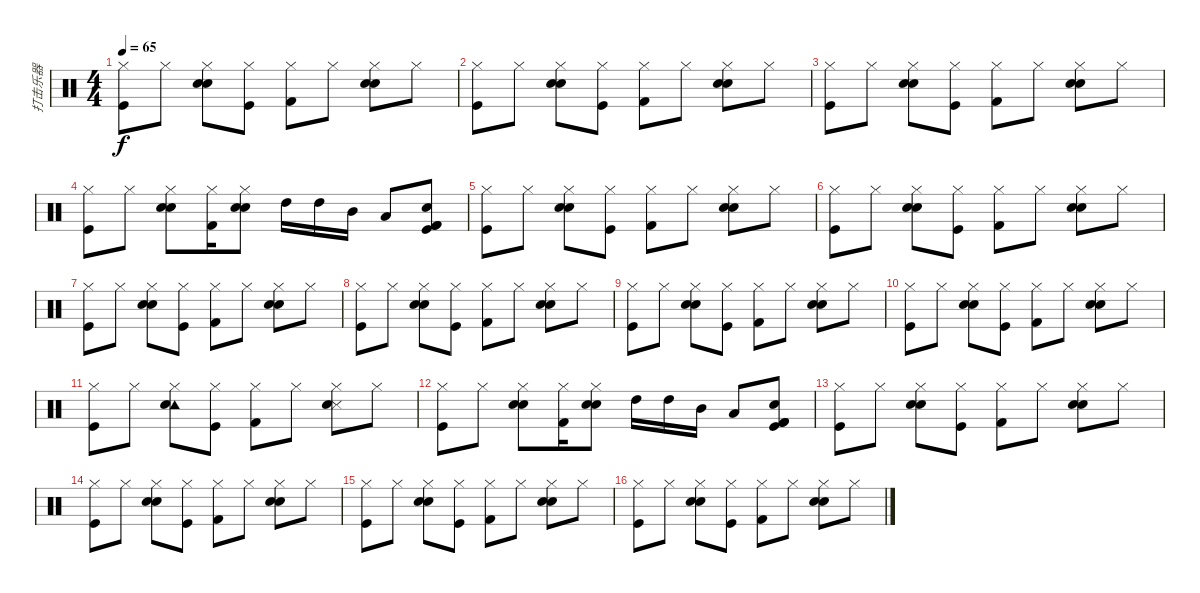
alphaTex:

\track ("打击乐器" "打击乐器") {instrument percussion}
\staff {score}
\articulation defaults
\ts (4 4)
\tempo 65
\clef neutral
\ks c
("Hi-Hat (closed)" "Kick (hit)").8{dy f} "Hi-Hat (closed)".8 ("Hi-Hat (closed)" "Electric Snare (hit)" "Hand Clap (hit)").8 ("Hi-Hat (closed)" "Kick (hit)").8 ("Hi-Hat (closed)" "Kick (hit) 2").8 "Hi-Hat (closed)".8 ("Hi-Hat (closed)" "Electric Snare (hit)" "Hand Clap (hit)").8 "Hi-Hat (closed)".8 |
("Hi-Hat (closed)" "Kick (hit)").8 "Hi-Hat (closed)".8 ("Hi-Hat (closed)" "Electric Snare (hit)" "Hand Clap (hit)").8 ("Hi-Hat (closed)" "Kick (hit)").8 ("Hi-Hat (closed)" "Kick (hit) 2").8 "Hi-Hat (closed)".8 ("Hi-Hat (closed)" "Electric Snare (hit)" "Hand Clap (hit)").8 "Hi-Hat (closed)".8 |
("Hi-Hat (closed)" "Kick (hit)").8 "Hi-Hat (closed)".8 ("Hi-Hat (closed)" "Electric Snare (hit)" "Hand Clap (hit)").8 ("Hi-Hat (closed)" "Kick (hit)").8 ("Hi-Hat (closed)" "Kick (hit) 2").8 "Hi-Hat (closed)".8 ("Hi-Hat (closed)" "Electric Snare (hit)" "Hand Clap (hit)").8 "Hi-Hat (closed)".8 |
("Hi-Hat (closed)" "Kick (hit)").8 "Hi-Hat (closed)".8 ("Hi-Hat (closed)" "Electric Snare (hit)" "Hand Clap (hit)").8 ("Hi-Hat (closed)" "Kick (hit) 2").16 ("Hi-Hat (closed)" "Electric Snare (hit)" "Hand Clap (hit)").8 "High Tom (hit)".16 "High Tom (hit)".16 "Mid Tom (hit)".16 "Low Tom (hit)".8 ("Electric Snare (hit)" "Kick (hit) 2" "Kick (hit) 2" "Kick (hit)").8 |
("Hi-Hat (closed)" "Kick (hit)").8 "Hi-Hat (closed)".8 ("Hi-Hat (closed)" "Electric Snare (hit)" "Hand Clap (hit)").8 ("Hi-Hat (closed)" "Kick (hit)").8 ("Hi-Hat (closed)" "Kick (hit) 2").8 "Hi-Hat (closed)".8 ("Hi-Hat (closed)" "Electric Snare (hit)" "Hand Clap (hit)").8 "Hi-Hat (closed)".8 |
("Hi-Hat (closed)" "Kick (hit)").8 "Hi-Hat (closed)".8 ("Hi-Hat (closed)" "Electric Snare (hit)" "Hand Clap (hit)").8 ("Hi-Hat (closed)" "Kick (hit)").8 ("Hi-Hat (closed)" "Kick (hit) 2").8 "Hi-Hat (closed)".8 ("Hi-Hat (closed)" "Electric Snare (hit)" "Hand Clap (hit)").8 "Hi-Hat (closed)".8 |
("Hi-Hat (closed)" "Kick (hit)").8 "Hi-Hat (closed)".8 ("Hi-Hat (closed)" "Electric Snare (hit)" "Hand Clap (hit)").8 ("Hi-Hat (closed)" "Kick (hit)").8 ("Hi-Hat (closed)" "Kick (hit) 2").8 "Hi-Hat (closed)".8 ("Hi-Hat (closed)" "Electric Snare (hit)" "Hand Clap (hit)").8 "Hi-Hat (closed)".8 |
("Hi-Hat (closed)" "Kick (hit)").8 "Hi-Hat (closed)".8 ("Hi-Hat (closed)" "Electric Snare (hit)" "Hand Clap (hit)").8 ("Hi-Hat (closed)" "Kick (hit)").8 ("Hi-Hat (closed)" "Kick (hit) 2").8 "Hi-Hat (closed)".8 ("Hi-Hat (closed)" "Electric Snare (hit)" "Hand Clap (hit)").8 "Hi-Hat (closed)".8 |
("Hi-Hat (closed)" "Kick (hit)").8 "Hi-Hat (closed)".8 ("Hi-Hat (closed)" "Electric Snare (hit)" "Hand Clap (hit)").8 ("Hi-Hat (closed)" "Kick (hit)").8 ("Hi-Hat (closed)" "Kick (hit) 2").8 "Hi-Hat (closed)".8 ("Hi-Hat (closed)" "Electric Snare (hit)" "Hand Clap (hit)").8 "Hi-Hat (closed)".8 |
("Hi-Hat (closed)" "Kick (hit)").8 "Hi-Hat (closed)".8 ("Hi-Hat (closed)" "Electric Snare (hit)" "Hand Clap (hit)").8 ("Hi-Hat (closed)" "Kick (hit)").8 ("Hi-Hat (closed)" "Kick (hit) 2").8 "Hi-Hat (closed)".8 ("Hi-Hat (closed)" "Electric Snare (hit)" "Hand Clap (hit)").8 "Hi-Hat (closed)".8 |
("Hi-Hat (closed)" "Kick (hit)").8 "Hi-Hat (closed)".8 ("Hi-Hat (closed)" "Tambourine (hit)" "Electric Snare (hit)").8 ("Hi-Hat (closed)" "Kick (hit)").8 ("Hi-Hat (closed)" "Kick (hit) 2").8 "Hi-Hat (closed)".8 ("Hi-Hat (closed)" "Snare (side stick) 3" "Electric Snare (hit)").8 "Hi-Hat (closed)".8 |
("Hi-Hat (closed)" "Kick (hit)").8 "Hi-Hat (closed)".8 ("Hi-Hat (closed)" "Electric Snare (hit)" "Hand Clap (hit)").8 ("Hi-Hat (closed)" "Kick (hit) 2").16 ("Hi-Hat (closed)" "Electric Snare (hit)" "Hand Clap (hit)").8 "High Tom (hit)".16 "High Tom (hit)".16 "Mid Tom (hit)".16 "Low Tom (hit)".8 ("Electric Snare (hit)" "Kick (hit) 2" "Kick (hit) 2" "Kick (hit)").8 |
("Hi-Hat (closed)" "Kick (hit)").8 "Hi-Hat (closed)".8 ("Hi-Hat (closed)" "Electric Snare (hit)" "Hand Clap (hit)").8 ("Hi-Hat (closed)" "Kick (hit)").8 ("Hi-Hat (closed)" "Kick (hit) 2").8 "Hi-Hat (closed)".8 ("Hi-Hat (closed)" "Electric Snare (hit)" "Hand Clap (hit)").8 "Hi-Hat (closed)".8 |
("Hi-Hat (closed)" "Kick (hit)").8 "Hi-Hat (closed)".8 ("Hi-Hat (closed)" "Electric Snare (hit)" "Hand Clap (hit)").8 ("Hi-Hat (closed)" "Kick (hit)").8 ("Hi-Hat (closed)" "Kick (hit) 2").8 "Hi-Hat (closed)".8 ("Hi-Hat (closed)" "Electric Snare (hit)" "Hand Clap (hit)").8 "Hi-Hat (closed)".8 |
("Hi-Hat (closed)" "Kick (hit)").8 "Hi-Hat (closed)".8 ("Hi-Hat (closed)" "Electric Snare (hit)" "Hand Clap (hit)").8 ("Hi-Hat (closed)" "Kick (hit)").8 ("Hi-Hat (closed)" "Kick (hit) 2").8 "Hi-Hat (closed)".8 ("Hi-Hat (closed)" "Electric Snare (hit)" "Hand Clap (hit)").8 "Hi-Hat (closed)".8 |
("Hi-Hat (closed)" "Kick (hit)").8 "Hi-Hat (closed)".8 ("Hi-Hat (closed)" "Electric Snare (hit)" "Hand Clap (hit)").8 ("Hi-Hat (closed)" "Kick (hit)").8 ("Hi-Hat (closed)" "Kick (hit) 2").8 "Hi-Hat (closed)".8 ("Hi-Hat (closed)" "Electric Snare (hit)" "Hand Clap (hit)").8 "Hi-Hat (closed)".8
